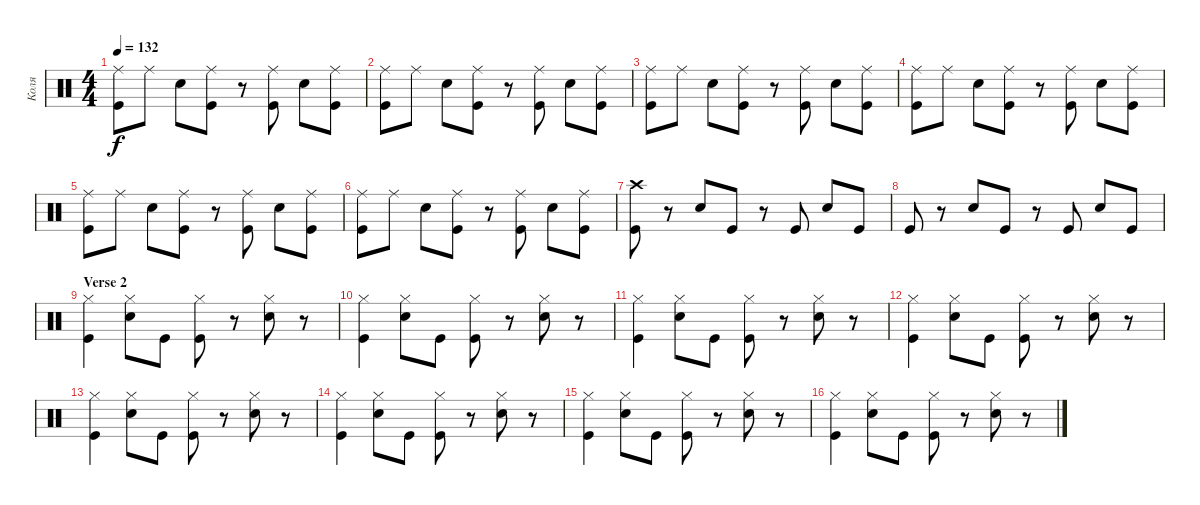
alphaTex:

\track ("Коля" "Коля") {instrument percussion}
\staff {score}
\articulation defaults
\ts (4 4)
\tempo 132
\clef neutral
\ks c
("Ride (middle)" "Kick (hit)").8{dy f} "Ride (middle)".8 "Snare (hit) 2".8 ("Ride (middle)" "Kick (hit)").8 r.8 ("Ride (middle)" "Kick (hit)").8 "Snare (hit) 2".8 ("Ride (middle)" "Kick (hit)").8 |
("Ride (middle)" "Kick (hit)").8 "Ride (middle)".8 "Snare (hit) 2".8 ("Ride (middle)" "Kick (hit)").8 r.8 ("Ride (middle)" "Kick (hit)").8 "Snare (hit) 2".8 ("Ride (middle)" "Kick (hit)").8 |
("Ride (middle)" "Kick (hit)").8 "Ride (middle)".8 "Snare (hit) 2".8 ("Ride (middle)" "Kick (hit)").8 r.8 ("Ride (middle)" "Kick (hit)").8 "Snare (hit) 2".8 ("Ride (middle)" "Kick (hit)").8 |
("Ride (middle)" "Kick (hit)").8 "Ride (middle)".8 "Snare (hit) 2".8 ("Ride (middle)" "Kick (hit)").8 r.8 ("Ride (middle)" "Kick (hit)").8 "Snare (hit) 2".8 ("Ride (middle)" "Kick (hit)").8 |
("Ride (middle)" "Kick (hit)").8 "Ride (middle)".8 "Snare (hit) 2".8 ("Ride (middle)" "Kick (hit)").8 r.8 ("Ride (middle)" "Kick (hit)").8 "Snare (hit) 2".8 ("Ride (middle)" "Kick (hit)").8 |
("Ride (middle)" "Kick (hit)").8 "Ride (middle)".8 "Snare (hit) 2".8 ("Ride (middle)" "Kick (hit)").8 r.8 ("Ride (middle)" "Kick (hit)").8 "Snare (hit) 2".8 ("Ride (middle)" "Kick (hit)").8 |
("Crash high (hit)" "Kick (hit)").8 r.8 "Snare (hit) 2".8 "Kick (hit)".8 r.8 "Kick (hit)".8 "Snare (hit) 2".8 "Kick (hit)".8 |
"Kick (hit)".8 r.8 "Snare (hit) 2".8 "Kick (hit)".8 r.8 "Kick (hit)".8 "Snare (hit) 2".8 "Kick (hit)".8 |
\section ("" "Verse 2")
("Hi-Hat (closed)" "Kick (hit)").4 ("Hi-Hat (closed)" "Snare (hit) 2").8 "Kick (hit)".8 ("Hi-Hat (closed)" "Kick (hit)").8 r.8 ("Hi-Hat (closed)" "Snare (hit) 2").8 r.8 |
("Hi-Hat (closed)" "Kick (hit)").4 ("Hi-Hat (closed)" "Snare (hit) 2").8 "Kick (hit)".8 ("Hi-Hat (closed)" "Kick (hit)").8 r.8 ("Hi-Hat (closed)" "Snare (hit) 2").8 r.8 |
("Hi-Hat (closed)" "Kick (hit)").4 ("Hi-Hat (closed)" "Snare (hit) 2").8 "Kick (hit)".8 ("Hi-Hat (closed)" "Kick (hit)").8 r.8 ("Hi-Hat (closed)" "Snare (hit) 2").8 r.8 |
("Hi-Hat (closed)" "Kick (hit)").4 ("Hi-Hat (closed)" "Snare (hit) 2").8 "Kick (hit)".8 ("Hi-Hat (closed)" "Kick (hit)").8 r.8 ("Hi-Hat (closed)" "Snare (hit) 2").8 r.8 |
("Hi-Hat (closed)" "Kick (hit)").4 ("Hi-Hat (closed)" "Snare (hit) 2").8 "Kick (hit)".8 ("Hi-Hat (closed)" "Kick (hit)").8 r.8 ("Hi-Hat (closed)" "Snare (hit) 2").8 r.8 |
("Hi-Hat (closed)" "Kick (hit)").4 ("Hi-Hat (closed)" "Snare (hit) 2").8 "Kick (hit)".8 ("Hi-Hat (closed)" "Kick (hit)").8 r.8 ("Hi-Hat (closed)" "Snare (hit) 2").8 r.8 |
("Hi-Hat (closed)" "Kick (hit)").4 ("Hi-Hat (closed)" "Snare (hit) 2").8 "Kick (hit)".8 ("Hi-Hat (closed)" "Kick (hit)").8 r.8 ("Hi-Hat (closed)" "Snare (hit) 2").8 r.8 |
("Hi-Hat (closed)" "Kick (hit)").4 ("Hi-Hat (closed)" "Snare (hit) 2").8 "Kick (hit)".8 ("Hi-Hat (closed)" "Kick (hit)").8 r.8 ("Hi-Hat (closed)" "Snare (hit) 2").8 r.8
